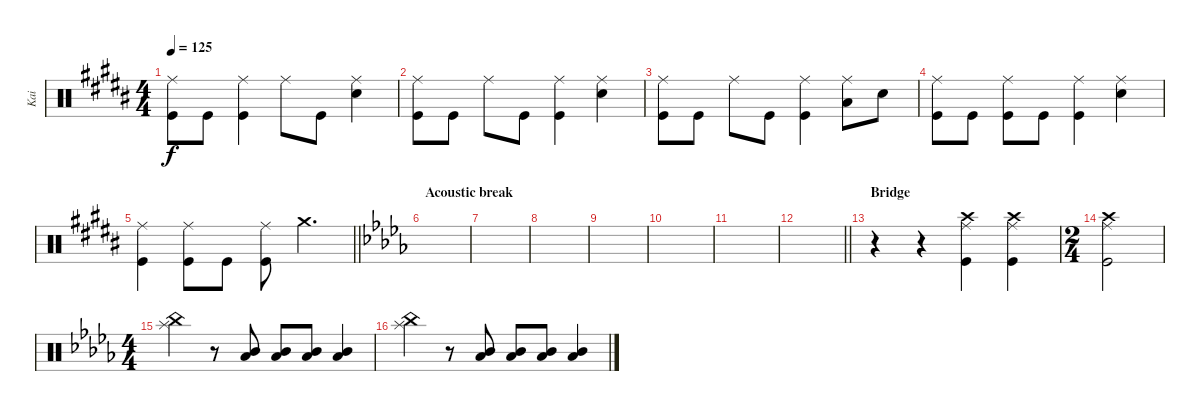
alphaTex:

\track ("Kai" "Kai") {instrument percussion}
\staff {score}
\articulation defaults
\ts (4 4)
\tempo 125
\clef neutral
\ks b
("Kick (hit)" "Ride (middle)").8{dy f} "Kick (hit)".8 ("Kick (hit)" "Ride (middle)").4 "Ride (middle)".8 "Kick (hit)".8 ("Ride (middle)" "Snare (hit) 2").4 |
("Ride (middle)" "Kick (hit)").8 "Kick (hit)".8 "Ride (middle)".8 "Kick (hit)".8 ("Kick (hit)" "Ride (middle)").4 ("Snare (hit) 2" "Ride (middle)").4 |
("Ride (middle)" "Kick (hit)").8 "Kick (hit)".8 "Ride (middle)".8 "Kick (hit)".8 ("Kick (hit)" "Ride (middle)").4 ("Ride (middle)" "Low Floor Tom (hit)").8 "Snare (hit) 2".8 |
("Kick (hit)" "Ride (middle)").8 "Kick (hit)".8 ("Kick (hit)" "Ride (middle)").8 "Kick (hit)".8 ("Kick (hit)" "Ride (middle)").4 ("Snare (hit) 2" "Ride (middle)").4 |
\barLineRight lightlight
("Ride (middle)" "Kick (hit)").4 ("Kick (hit)" "Ride (middle)").8 "Kick (hit)".8 ("Kick (hit)" "Ride (middle)").8 "Crash medium (hit)".4{d} |
\section ("" "Acoustic break")
\ks bbminor
|
|
|
|
|
|
\barLineRight lightlight
|
\section ("" "Bridge")
r.4 r.4 ("Kick (hit)" "Ride (middle)" "Crash high (hit)").4 ("Kick (hit)" "Ride (middle)" "Crash high (hit)").4 |
\ts (2 4)
("Kick (hit)" "Ride (middle)" "Crash high (hit)").2 |
\ts (4 4)
("China (hit)" "Splash (hit)").4 r.8 ("Low Tom (hit)" "Mid Tom (hit)").8 ("Low Tom (hit)" "Mid Tom (hit)").8 ("Low Tom (hit)" "Mid Tom (hit)").8 ("Low Tom (hit)" "Mid Tom (hit)").4 |
("Splash (hit)" "China (hit)").4 r.8 ("Low Tom (hit)" "Mid Tom (hit)").8 ("Low Tom (hit)" "Mid Tom (hit)").8 ("Low Tom (hit)" "Mid Tom (hit)").8 ("Low Tom (hit)" "Mid Tom (hit)").4
